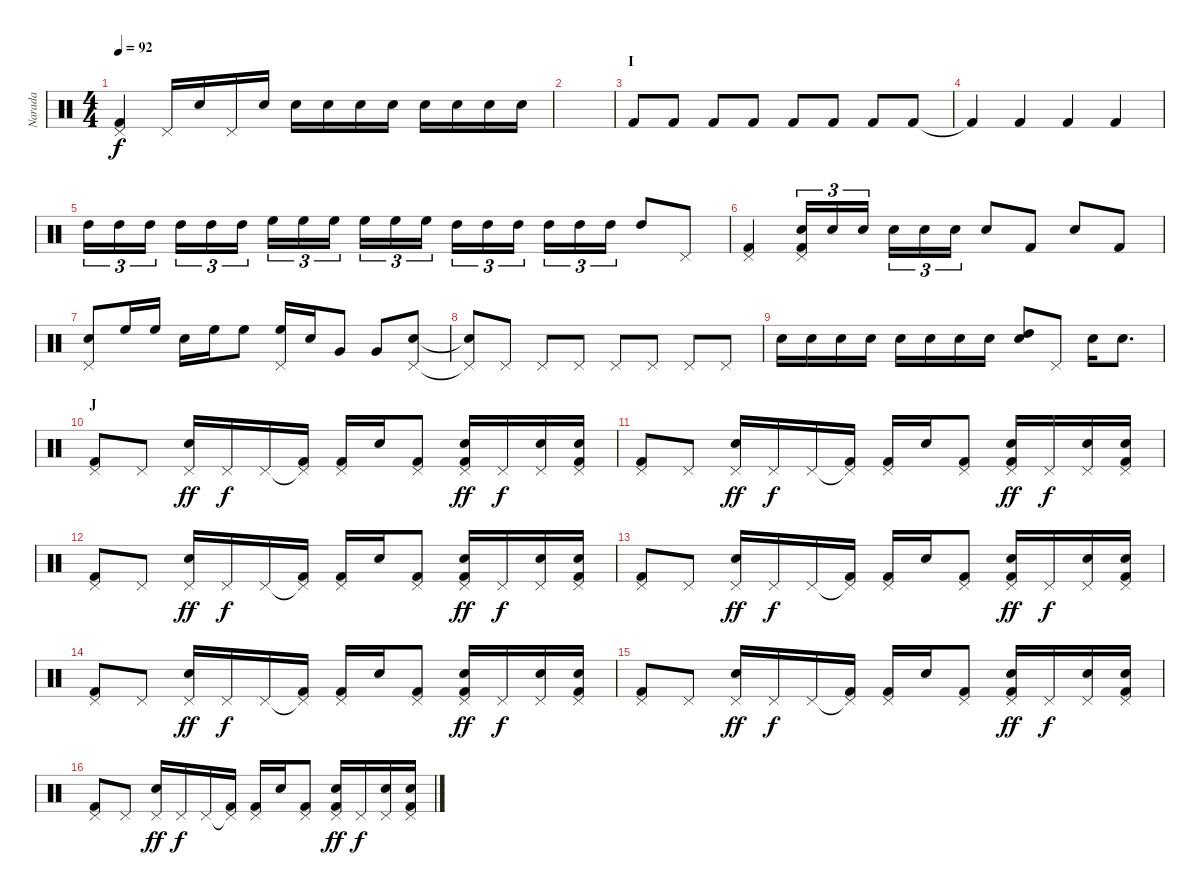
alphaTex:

\track ("Narada" "Narada") {instrument percussion}
\staff {score}
\articulation defaults
\ts (4 4)
\tempo 92
\clef neutral
\ks c
("Pedal Hi-Hat (hit)" "Kick (hit) 2").4{dy f} "Pedal Hi-Hat (hit)".16 "Snare (hit) 2".16 "Pedal Hi-Hat (hit)".16 "Snare (hit) 2".16 "Snare (hit) 2".16 "Snare (hit) 2".16 "Snare (hit) 2".16 "Snare (hit) 2".16 "Snare (hit) 2".16 "Snare (hit) 2".16 "Snare (hit) 2".16 "Snare (hit) 2".16 |
|
\section ("" "I")
"Kick (hit) 2".8 "Kick (hit) 2".8 "Kick (hit) 2".8 "Kick (hit) 2".8 "Kick (hit) 2".8 "Kick (hit) 2".8 "Kick (hit) 2".8 "Kick (hit) 2".8 |
"Kick (hit) 2"{t}.4 "Kick (hit) 2".4 "Kick (hit) 2".4 "Kick (hit) 2".4 |
"High Tom (hit)".16{tu (3 2)} "High Tom (hit)".16{tu (3 2)} "High Tom (hit)".16{tu (3 2)} "High Tom (hit)".16{tu (3 2)} "High Tom (hit)".16{tu (3 2)} "High Tom (hit)".16{tu (3 2)} "High Floor Tom (hit)".16{tu (3 2)} "High Floor Tom (hit)".16{tu (3 2)} "High Floor Tom (hit)".16{tu (3 2)} "High Floor Tom (hit)".16{tu (3 2)} "High Floor Tom (hit)".16{tu (3 2)} "High Floor Tom (hit)".16{tu (3 2)} "High Tom (hit)".16{tu (3 2)} "High Tom (hit)".16{tu (3 2)} "High Tom (hit)".16{tu (3 2)} "High Tom (hit)".16{tu (3 2)} "High Tom (hit)".16{tu (3 2)} "High Tom (hit)".16{tu (3 2)} "High Tom (hit)".8 "Pedal Hi-Hat (hit)".8 |
("Pedal Hi-Hat (hit)" "Kick (hit) 2").4 ("Pedal Hi-Hat (hit)" "Snare (hit) 2" "Kick (hit) 2").16{tu (3 2)} "Snare (hit) 2".16{tu (3 2)} "Snare (hit) 2".16{tu (3 2)} "Snare (hit) 2".16{tu (3 2)} "Snare (hit) 2".16{tu (3 2)} "Snare (hit) 2".16{tu (3 2)} "Snare (hit) 2".8 "Kick (hit) 2".8 "Snare (hit) 2".8 "Kick (hit) 2".8 |
("Pedal Hi-Hat (hit)" "Snare (hit) 2").8 "High Floor Tom (hit)".16 "High Floor Tom (hit)".16 "Snare (hit) 2".16 "High Floor Tom (hit)".16 "High Floor Tom (hit)".8 ("Pedal Hi-Hat (hit)" "High Floor Tom (hit)").16 "Snare (hit) 2".16 "Very Low Tom (hit)".8 "Very Low Tom (hit)".8 ("Pedal Hi-Hat (hit)" "Snare (hit) 2").8 |
("Pedal Hi-Hat (hit)"{t} "Snare (hit) 2"{t}).8 "Pedal Hi-Hat (hit)".8 "Pedal Hi-Hat (hit)".8 "Pedal Hi-Hat (hit)".8 "Pedal Hi-Hat (hit)".8 "Pedal Hi-Hat (hit)".8 "Pedal Hi-Hat (hit)".8 "Pedal Hi-Hat (hit)".8 |
"Snare (hit) 2".16 "Snare (hit) 2".16 "Snare (hit) 2".16 "Snare (hit) 2".16 "Snare (hit) 2".16 "Snare (hit) 2".16 "Snare (hit) 2".16 "Snare (hit) 2".16 ("High Tom (hit)" "Snare (hit) 2").8 "Pedal Hi-Hat (hit)".8 "Snare (hit) 2".16 "Snare (hit) 2".8{d} |
\section ("" "J")
("Pedal Hi-Hat (hit)" "Kick (hit) 2").8 "Pedal Hi-Hat (hit)".8 ("Pedal Hi-Hat (hit)" "Snare (hit) 2").16{dy ff} "Pedal Hi-Hat (hit)".16{dy f} "Pedal Hi-Hat (hit)".16 ("Pedal Hi-Hat (hit)"{t} "Kick (hit) 2").16 ("Pedal Hi-Hat (hit)" "Kick (hit) 2").16 "Snare (hit) 2".16 ("Pedal Hi-Hat (hit)" "Kick (hit) 2").8 ("Pedal Hi-Hat (hit)" "Snare (hit) 2" "Kick (hit) 2").16{dy ff} "Pedal Hi-Hat (hit)".16{dy f} ("Pedal Hi-Hat (hit)" "Snare (hit) 2").16 ("Pedal Hi-Hat (hit)" "Snare (hit) 2" "Kick (hit) 2").16 |
("Pedal Hi-Hat (hit)" "Kick (hit) 2").8 "Pedal Hi-Hat (hit)".8 ("Pedal Hi-Hat (hit)" "Snare (hit) 2").16{dy ff} "Pedal Hi-Hat (hit)".16{dy f} "Pedal Hi-Hat (hit)".16 ("Pedal Hi-Hat (hit)"{t} "Kick (hit) 2").16 ("Pedal Hi-Hat (hit)" "Kick (hit) 2").16 "Snare (hit) 2".16 ("Pedal Hi-Hat (hit)" "Kick (hit) 2").8 ("Pedal Hi-Hat (hit)" "Snare (hit) 2" "Kick (hit) 2").16{dy ff} "Pedal Hi-Hat (hit)".16{dy f} ("Pedal Hi-Hat (hit)" "Snare (hit) 2").16 ("Pedal Hi-Hat (hit)" "Snare (hit) 2" "Kick (hit) 2").16 |
("Pedal Hi-Hat (hit)" "Kick (hit) 2").8 "Pedal Hi-Hat (hit)".8 ("Pedal Hi-Hat (hit)" "Snare (hit) 2").16{dy ff} "Pedal Hi-Hat (hit)".16{dy f} "Pedal Hi-Hat (hit)".16 ("Pedal Hi-Hat (hit)"{t} "Kick (hit) 2").16 ("Pedal Hi-Hat (hit)" "Kick (hit) 2").16 "Snare (hit) 2".16 ("Pedal Hi-Hat (hit)" "Kick (hit) 2").8 ("Pedal Hi-Hat (hit)" "Snare (hit) 2" "Kick (hit) 2").16{dy ff} "Pedal Hi-Hat (hit)".16{dy f} ("Pedal Hi-Hat (hit)" "Snare (hit) 2").16 ("Pedal Hi-Hat (hit)" "Snare (hit) 2" "Kick (hit) 2").16 |
("Pedal Hi-Hat (hit)" "Kick (hit) 2").8 "Pedal Hi-Hat (hit)".8 ("Pedal Hi-Hat (hit)" "Snare (hit) 2").16{dy ff} "Pedal Hi-Hat (hit)".16{dy f} "Pedal Hi-Hat (hit)".16 ("Pedal Hi-Hat (hit)"{t} "Kick (hit) 2").16 ("Pedal Hi-Hat (hit)" "Kick (hit) 2").16 "Snare (hit) 2".16 ("Pedal Hi-Hat (hit)" "Kick (hit) 2").8 ("Pedal Hi-Hat (hit)" "Snare (hit) 2" "Kick (hit) 2").16{dy ff} "Pedal Hi-Hat (hit)".16{dy f} ("Pedal Hi-Hat (hit)" "Snare (hit) 2").16 ("Pedal Hi-Hat (hit)" "Snare (hit) 2" "Kick (hit) 2").16 |
("Pedal Hi-Hat (hit)" "Kick (hit) 2").8 "Pedal Hi-Hat (hit)".8 ("Pedal Hi-Hat (hit)" "Snare (hit) 2").16{dy ff} "Pedal Hi-Hat (hit)".16{dy f} "Pedal Hi-Hat (hit)".16 ("Pedal Hi-Hat (hit)"{t} "Kick (hit) 2").16 ("Pedal Hi-Hat (hit)" "Kick (hit) 2").16 "Snare (hit) 2".16 ("Pedal Hi-Hat (hit)" "Kick (hit) 2").8 ("Pedal Hi-Hat (hit)" "Snare (hit) 2" "Kick (hit) 2").16{dy ff} "Pedal Hi-Hat (hit)".16{dy f} ("Pedal Hi-Hat (hit)" "Snare (hit) 2").16 ("Pedal Hi-Hat (hit)" "Snare (hit) 2" "Kick (hit) 2").16 |
("Pedal Hi-Hat (hit)" "Kick (hit) 2").8 "Pedal Hi-Hat (hit)".8 ("Pedal Hi-Hat (hit)" "Snare (hit) 2").16{dy ff} "Pedal Hi-Hat (hit)".16{dy f} "Pedal Hi-Hat (hit)".16 ("Pedal Hi-Hat (hit)"{t} "Kick (hit) 2").16 ("Pedal Hi-Hat (hit)" "Kick (hit) 2").16 "Snare (hit) 2".16 ("Pedal Hi-Hat (hit)" "Kick (hit) 2").8 ("Pedal Hi-Hat (hit)" "Snare (hit) 2" "Kick (hit) 2").16{dy ff} "Pedal Hi-Hat (hit)".16{dy f} ("Pedal Hi-Hat (hit)" "Snare (hit) 2").16 ("Pedal Hi-Hat (hit)" "Snare (hit) 2" "Kick (hit) 2").16 |
("Pedal Hi-Hat (hit)" "Kick (hit) 2").8 "Pedal Hi-Hat (hit)".8 ("Pedal Hi-Hat (hit)" "Snare (hit) 2").16{dy ff} "Pedal Hi-Hat (hit)".16{dy f} "Pedal Hi-Hat (hit)".16 ("Pedal Hi-Hat (hit)"{t} "Kick (hit) 2").16 ("Pedal Hi-Hat (hit)" "Kick (hit) 2").16 "Snare (hit) 2".16 ("Pedal Hi-Hat (hit)" "Kick (hit) 2").8 ("Pedal Hi-Hat (hit)" "Snare (hit) 2" "Kick (hit) 2").16{dy ff} "Pedal Hi-Hat (hit)".16{dy f} ("Pedal Hi-Hat (hit)" "Snare (hit) 2").16 ("Pedal Hi-Hat (hit)" "Snare (hit) 2" "Kick (hit) 2").16
